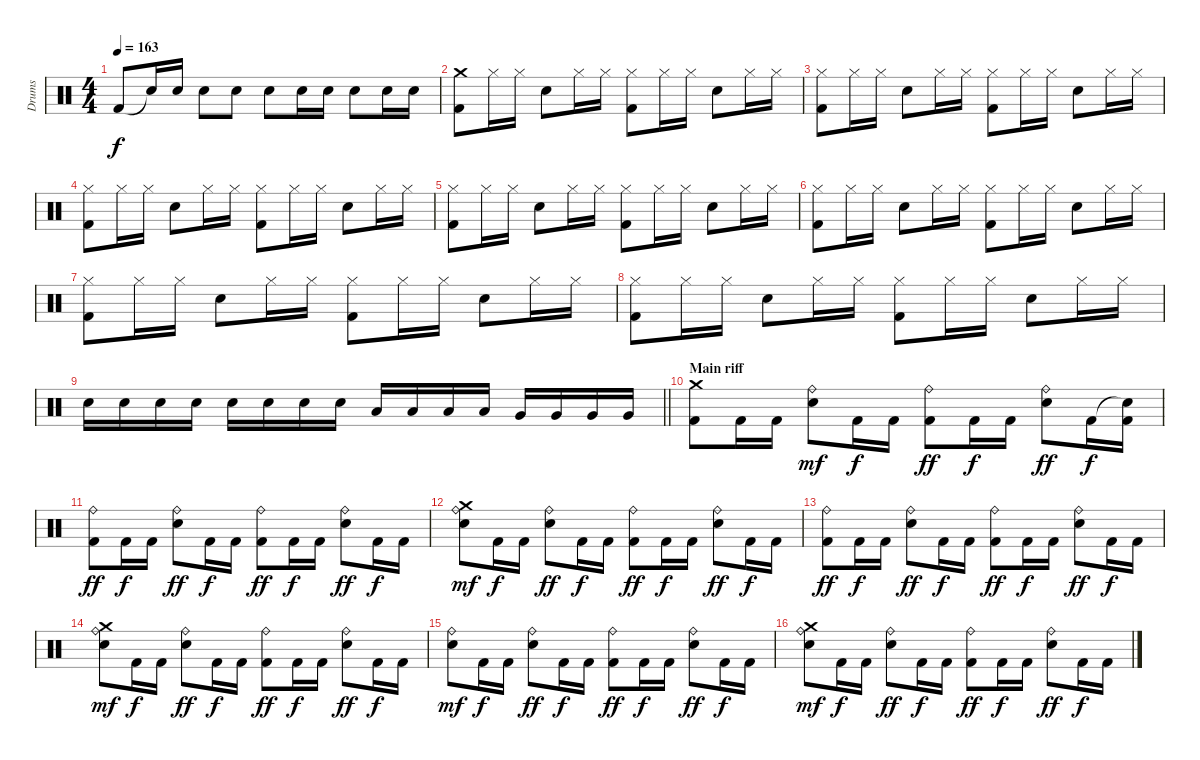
\track ("Drums" "Drums") {instrument percussion}
\staff {score}
\articulation defaults
\ts (4 4)
\tempo 163
\clef neutral
\ks c "Kick (hit) 2".8{dy f} "Snare (hit)"{t}.16 "Electric Snare (hit)".16 "Electric Snare (hit)".8 "Electric Snare (hit)".8 "Electric Snare (hit)".8 "Electric Snare (hit)".16 "Electric Snare (hit)".16 "Electric Snare (hit)".8 "Electric Snare (hit)".16 "Electric Snare (hit)".16
|
("Crash medium (hit)" "Kick (hit) 2").8 "Hi-Hat (closed)".16 "Hi-Hat (closed)".16 "Electric Snare (hit)".8 "Hi-Hat (closed)".16 "Hi-Hat (closed)".16 ("Hi-Hat (closed)" "Kick (hit) 2").8 "Hi-Hat (closed)".16 "Hi-Hat (closed)".16 "Electric Snare (hit)".8 "Hi-Hat (closed)".16 "Hi-Hat (closed)".16 |
("Hi-Hat (closed)" "Kick (hit) 2").8 "Hi-Hat (closed)".16 "Hi-Hat (closed)".16 "Electric Snare (hit)".8 "Hi-Hat (closed)".16 "Hi-Hat (closed)".16 ("Hi-Hat (closed)" "Kick (hit) 2").8 "Hi-Hat (closed)".16 "Hi-Hat (closed)".16 "Electric Snare (hit)".8 "Hi-Hat (closed)".16 "Hi-Hat (closed)".16 |
("Hi-Hat (closed)" "Kick (hit) 2").8 "Hi-Hat (closed)".16 "Hi-Hat (closed)".16 "Electric Snare (hit)".8 "Hi-Hat (closed)".16 "Hi-Hat (closed)".16 ("Hi-Hat (closed)" "Kick (hit) 2").8 "Hi-Hat (closed)".16 "Hi-Hat (closed)".16 "Electric Snare (hit)".8 "Hi-Hat (closed)".16 "Hi-Hat (closed)".16 |
("Hi-Hat (closed)" "Kick (hit) 2").8 "Hi-Hat (closed)".16 "Hi-Hat (closed)".16 "Electric Snare (hit)".8 "Hi-Hat (closed)".16 "Hi-Hat (closed)".16 ("Hi-Hat (closed)" "Kick (hit) 2").8 "Hi-Hat (closed)".16 "Hi-Hat (closed)".16 "Electric Snare (hit)".8 "Hi-Hat (closed)".16 "Hi-Hat (closed)".16 |
("Hi-Hat (closed)" "Kick (hit) 2").8 "Hi-Hat (closed)".16 "Hi-Hat (closed)".16 "Electric Snare (hit)".8 "Hi-Hat (closed)".16 "Hi-Hat (closed)".16 ("Hi-Hat (closed)" "Kick (hit) 2").8 "Hi-Hat (closed)".16 "Hi-Hat (closed)".16 "Electric Snare (hit)".8 "Hi-Hat (closed)".16 "Hi-Hat (closed)".16 |
("Hi-Hat (closed)" "Kick (hit) 2").8 "Hi-Hat (closed)".16 "Hi-Hat (closed)".16 "Electric Snare (hit)".8 "Hi-Hat (closed)".16 "Hi-Hat (closed)".16 ("Hi-Hat (closed)" "Kick (hit) 2").8 "Hi-Hat (closed)".16 "Hi-Hat (closed)".16 "Electric Snare (hit)".8 "Hi-Hat (closed)".16 "Hi-Hat (closed)".16 |
("Hi-Hat (closed)" "Kick (hit) 2").8 "Hi-Hat (closed)".16 "Hi-Hat (closed)".16 "Electric Snare (hit)".8 "Hi-Hat (closed)".16 "Hi-Hat (closed)".16 ("Hi-Hat (closed)" "Kick (hit) 2").8 "Hi-Hat (closed)".16 "Hi-Hat (closed)".16 "Electric Snare (hit)".8 "Hi-Hat (closed)".16 "Hi-Hat (closed)".16 |
\barLineRight lightlight "Electric Snare (hit)".16 "Electric Snare (hit)".16 "Electric Snare (hit)".16 "Electric Snare (hit)".16 "Electric Snare (hit)".16 "Electric Snare (hit)".16 "Electric Snare (hit)".16 "Electric Snare (hit)".16 "Low Tom (hit)".16 "Low Tom (hit)".16 "Low Tom (hit)".16 "Low Tom (hit)".16 "Very Low Tom (hit)".16 "Very Low Tom (hit)".16 "Very Low Tom (hit)".16 "Very Low Tom (hit)".16
|
\section ("" "Main riff")
("Crash medium (hit)" "Kick (hit) 2").8 "Kick (hit) 2".16 "Kick (hit) 2".16 ("Ride (bell)" "Electric Snare (hit)").8{dy mf} "Kick (hit) 2".16{dy f} "Kick (hit) 2".16 ("Ride (bell)" "Kick (hit) 2").8{dy ff} "Kick (hit) 2".16{dy f} "Kick (hit) 2".16 ("Ride (bell)" "Electric Snare (hit)").8{dy ff} "Kick (hit) 2".16{dy f} ("Snare (hit)"{t} "Kick (hit) 2").16 |
("Ride (bell)" "Kick (hit) 2").8{dy ff} "Kick (hit) 2".16{dy f} "Kick (hit) 2".16 ("Ride (bell)" "Electric Snare (hit)").8{dy ff} "Kick (hit) 2".16{dy f} "Kick (hit) 2".16 ("Ride (bell)" "Kick (hit) 2").8{dy ff} "Kick (hit) 2".16{dy f} "Kick (hit) 2".16 ("Ride (bell)" "Electric Snare (hit)").8{dy ff} "Kick (hit) 2".16{dy f} "Kick (hit) 2".16 |
("Crash medium (hit)" "Ride (bell)" "Electric Snare (hit)").8{dy mf} "Kick (hit) 2".16{dy f} "Kick (hit) 2".16 ("Ride (bell)" "Electric Snare (hit)").8{dy ff} "Kick (hit) 2".16{dy f} "Kick (hit) 2".16 ("Ride (bell)" "Kick (hit) 2").8{dy ff} "Kick (hit) 2".16{dy f} "Kick (hit) 2".16 ("Ride (bell)" "Electric Snare (hit)").8{dy ff} "Kick (hit) 2".16{dy f} "Kick (hit) 2".16 |
("Ride (bell)" "Kick (hit) 2").8{dy ff} "Kick (hit) 2".16{dy f} "Kick (hit) 2".16 ("Ride (bell)" "Electric Snare (hit)").8{dy ff} "Kick (hit) 2".16{dy f} "Kick (hit) 2".16 ("Ride (bell)" "Kick (hit) 2").8{dy ff} "Kick (hit) 2".16{dy f} "Kick (hit) 2".16 ("Ride (bell)" "Electric Snare (hit)").8{dy ff} "Kick (hit) 2".16{dy f} "Kick (hit) 2".16 |
("Crash medium (hit)" "Ride (bell)" "Electric Snare (hit)").8{dy mf} "Kick (hit) 2".16{dy f} "Kick (hit) 2".16 ("Ride (bell)" "Electric Snare (hit)").8{dy ff} "Kick (hit) 2".16{dy f} "Kick (hit) 2".16 ("Ride (bell)" "Kick (hit) 2").8{dy ff} "Kick (hit) 2".16{dy f} "Kick (hit) 2".16 ("Ride (bell)" "Electric Snare (hit)").8{dy ff} "Kick (hit) 2".16{dy f} "Kick (hit) 2".16 |
("Ride (bell)" "Electric Snare (hit)").8{dy mf} "Kick (hit) 2".16{dy f} "Kick (hit) 2".16 ("Ride (bell)" "Electric Snare (hit)").8{dy ff} "Kick (hit) 2".16{dy f} "Kick (hit) 2".16 ("Ride (bell)" "Kick (hit) 2").8{dy ff} "Kick (hit) 2".16{dy f} "Kick (hit) 2".16 ("Ride (bell)" "Electric Snare (hit)").8{dy ff} "Kick (hit) 2".16{dy f} "Kick (hit) 2".16 |
("Crash medium (hit)" "Ride (bell)" "Electric Snare (hit)").8{dy mf} "Kick (hit) 2".16{dy f} "Kick (hit) 2".16 ("Ride (bell)" "Electric Snare (hit)").8{dy ff} "Kick (hit) 2".16{dy f} "Kick (hit) 2".16 ("Ride (bell)" "Kick (hit) 2").8{dy ff} "Kick (hit) 2".16{dy f} "Kick (hit) 2".16 ("Ride (bell)" "Electric Snare (hit)").8{dy ff} "Kick (hit) 2".16{dy f} "Kick (hit) 2".16
